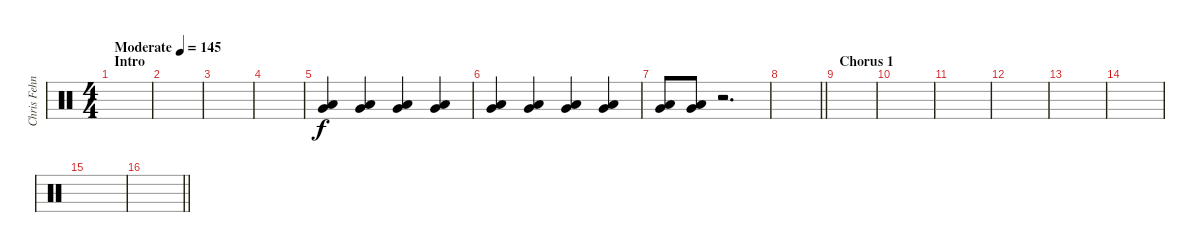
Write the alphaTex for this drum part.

\track ("Chris Fehn" "Chris Fehn") {instrument percussion}
\staff {score}
\articulation defaults
\ts (4 4)
\section ("" "Intro")
\tempo (145 "Moderate")
\clef neutral
\ks c
|
|
|
|
("Very Low Tom (hit)" "Low Floor Tom (hit)").4 ("Very Low Tom (hit)" "Low Floor Tom (hit)").4 ("Very Low Tom (hit)" "Low Floor Tom (hit)").4 ("Very Low Tom (hit)" "Low Floor Tom (hit)").4 |
("Very Low Tom (hit)" "Low Floor Tom (hit)").4 ("Very Low Tom (hit)" "Low Floor Tom (hit)").4 ("Very Low Tom (hit)" "Low Floor Tom (hit)").4 ("Very Low Tom (hit)" "Low Floor Tom (hit)").4 |
("Very Low Tom (hit)" "Low Floor Tom (hit)").8 ("Very Low Tom (hit)" "Low Floor Tom (hit)").8 r.2{d} |
\barLineRight lightlight
|
\section ("" "Chorus 1")
|
|
|
|
|
|
|
\barLineRight lightlight
